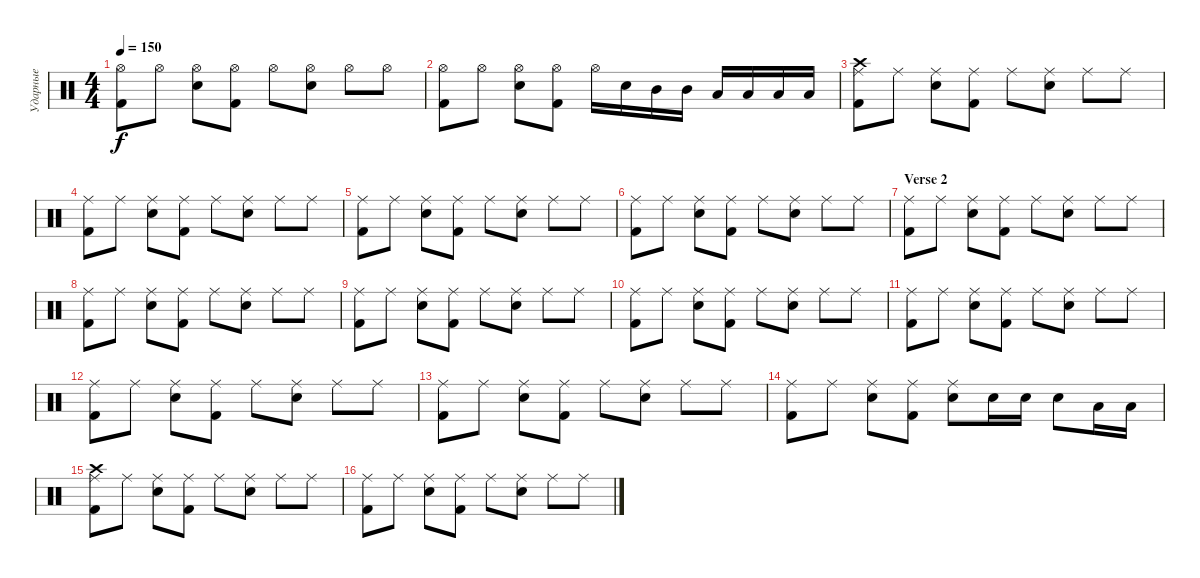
\track ("Ударные" "Ударные") {instrument percussion}
\staff {score}
\articulation defaults
\ts (4 4)
\tempo 150
\clef neutral
\ks c
("Hi-Hat (open)" "Kick (hit) 2").8{dy f} "Hi-Hat (open)".8 ("Hi-Hat (open)" "Snare (hit) 2").8 ("Hi-Hat (open)" "Kick (hit) 2").8 "Hi-Hat (open)".8 ("Hi-Hat (open)" "Snare (hit) 2").8 "Hi-Hat (open)".8 "Hi-Hat (open)".8 |
("Hi-Hat (open)" "Kick (hit) 2").8 "Hi-Hat (open)".8 ("Hi-Hat (open)" "Snare (hit) 2").8 ("Hi-Hat (open)" "Kick (hit) 2").8 "Hi-Hat (open)".16 "Snare (hit) 2".16 "Mid Tom (hit)".16 "Mid Tom (hit)".16 "Low Tom (hit)".16 "Low Tom (hit)".16 "Low Floor Tom (hit)".16 "Low Floor Tom (hit)".16 |
("Ride (middle)" "Crash high (hit)" "Kick (hit) 2").8 "Ride (middle)".8 ("Ride (middle)" "Snare (hit) 2").8 ("Ride (middle)" "Kick (hit) 2").8 "Ride (middle)".8 ("Ride (middle)" "Snare (hit) 2").8 "Ride (middle)".8 "Ride (middle)".8 |
("Ride (middle)" "Kick (hit) 2").8 "Ride (middle)".8 ("Ride (middle)" "Snare (hit) 2").8 ("Ride (middle)" "Kick (hit) 2").8 "Ride (middle)".8 ("Ride (middle)" "Snare (hit) 2").8 "Ride (middle)".8 "Ride (middle)".8 |
("Ride (middle)" "Kick (hit) 2").8 "Ride (middle)".8 ("Ride (middle)" "Snare (hit) 2").8 ("Ride (middle)" "Kick (hit) 2").8 "Ride (middle)".8 ("Ride (middle)" "Snare (hit) 2").8 "Ride (middle)".8 "Ride (middle)".8 |
("Ride (middle)" "Kick (hit) 2").8 "Ride (middle)".8 ("Ride (middle)" "Snare (hit) 2").8 ("Ride (middle)" "Kick (hit) 2").8 "Ride (middle)".8 ("Ride (middle)" "Snare (hit) 2").8 "Ride (middle)".8 "Ride (middle)".8 |
\section ("" "Verse 2")
("Ride (middle)" "Kick (hit) 2").8 "Ride (middle)".8 ("Ride (middle)" "Snare (hit) 2").8 ("Ride (middle)" "Kick (hit) 2").8 "Ride (middle)".8 ("Ride (middle)" "Snare (hit) 2").8 "Ride (middle)".8 "Ride (middle)".8 |
("Ride (middle)" "Kick (hit) 2").8 "Ride (middle)".8 ("Ride (middle)" "Snare (hit) 2").8 ("Ride (middle)" "Kick (hit) 2").8 "Ride (middle)".8 ("Ride (middle)" "Snare (hit) 2").8 "Ride (middle)".8 "Ride (middle)".8 |
("Ride (middle)" "Kick (hit) 2").8 "Ride (middle)".8 ("Ride (middle)" "Snare (hit) 2").8 ("Ride (middle)" "Kick (hit) 2").8 "Ride (middle)".8 ("Ride (middle)" "Snare (hit) 2").8 "Ride (middle)".8 "Ride (middle)".8 |
("Ride (middle)" "Kick (hit) 2").8 "Ride (middle)".8 ("Ride (middle)" "Snare (hit) 2").8 ("Ride (middle)" "Kick (hit) 2").8 "Ride (middle)".8 ("Ride (middle)" "Snare (hit) 2").8 "Ride (middle)".8 "Ride (middle)".8 |
("Ride (middle)" "Kick (hit) 2").8 "Ride (middle)".8 ("Ride (middle)" "Snare (hit) 2").8 ("Ride (middle)" "Kick (hit) 2").8 "Ride (middle)".8 ("Ride (middle)" "Snare (hit) 2").8 "Ride (middle)".8 "Ride (middle)".8 |
("Ride (middle)" "Kick (hit) 2").8 "Ride (middle)".8 ("Ride (middle)" "Snare (hit) 2").8 ("Ride (middle)" "Kick (hit) 2").8 "Ride (middle)".8 ("Ride (middle)" "Snare (hit) 2").8 "Ride (middle)".8 "Ride (middle)".8 |
("Ride (middle)" "Kick (hit) 2").8 "Ride (middle)".8 ("Ride (middle)" "Snare (hit) 2").8 ("Ride (middle)" "Kick (hit) 2").8 "Ride (middle)".8 ("Ride (middle)" "Snare (hit) 2").8 "Ride (middle)".8 "Ride (middle)".8 |
("Ride (middle)" "Kick (hit) 2").8 "Ride (middle)".8 ("Ride (middle)" "Snare (hit) 2").8 ("Ride (middle)" "Kick (hit) 2").8 ("Ride (middle)" "Snare (hit) 2").8 "Snare (hit) 2".16 "Snare (hit) 2".16 "Snare (hit) 2".8 "Low Tom (hit)".16 "Low Tom (hit)".16 |
("Ride (middle)" "Crash high (hit)" "Kick (hit) 2").8 "Ride (middle)".8 ("Ride (middle)" "Snare (hit) 2").8 ("Ride (middle)" "Kick (hit) 2").8 "Ride (middle)".8 ("Ride (middle)" "Snare (hit) 2").8 "Ride (middle)".8 "Ride (middle)".8 |
("Ride (middle)" "Kick (hit) 2").8 "Ride (middle)".8 ("Ride (middle)" "Snare (hit) 2").8 ("Ride (middle)" "Kick (hit) 2").8 "Ride (middle)".8 ("Ride (middle)" "Snare (hit) 2").8 "Ride (middle)".8 "Ride (middle)".8
